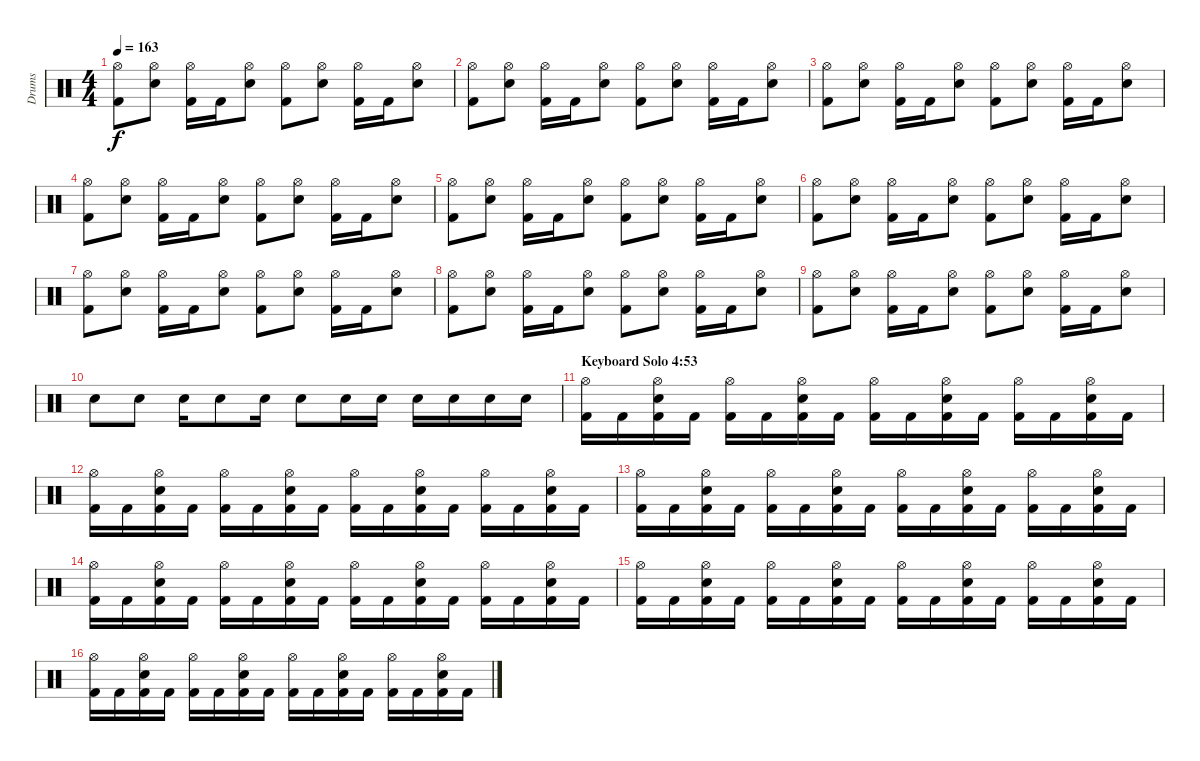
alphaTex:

\track ("Drums" "Drums") {instrument percussion}
\staff {score}
\articulation defaults
\ts (4 4)
\tempo 163
\clef neutral
\ks c
("Hi-Hat (open)" "Kick (hit) 2").8{dy f} ("Hi-Hat (open)" "Snare (hit) 2").8 ("Hi-Hat (open)" "Kick (hit) 2").16 "Kick (hit) 2".16 ("Hi-Hat (open)" "Snare (hit) 2").8 ("Hi-Hat (open)" "Kick (hit) 2").8 ("Hi-Hat (open)" "Snare (hit) 2").8 ("Hi-Hat (open)" "Kick (hit) 2").16 "Kick (hit) 2".16 ("Hi-Hat (open)" "Snare (hit) 2").8 |
("Hi-Hat (open)" "Kick (hit) 2").8 ("Hi-Hat (open)" "Snare (hit) 2").8 ("Hi-Hat (open)" "Kick (hit) 2").16 "Kick (hit) 2".16 ("Hi-Hat (open)" "Snare (hit) 2").8 ("Hi-Hat (open)" "Kick (hit) 2").8 ("Hi-Hat (open)" "Snare (hit) 2").8 ("Hi-Hat (open)" "Kick (hit) 2").16 "Kick (hit) 2".16 ("Hi-Hat (open)" "Snare (hit) 2").8 |
("Hi-Hat (open)" "Kick (hit) 2").8 ("Hi-Hat (open)" "Snare (hit) 2").8 ("Hi-Hat (open)" "Kick (hit) 2").16 "Kick (hit) 2".16 ("Hi-Hat (open)" "Snare (hit) 2").8 ("Hi-Hat (open)" "Kick (hit) 2").8 ("Hi-Hat (open)" "Snare (hit) 2").8 ("Hi-Hat (open)" "Kick (hit) 2").16 "Kick (hit) 2".16 ("Hi-Hat (open)" "Snare (hit) 2").8 |
("Hi-Hat (open)" "Kick (hit) 2").8 ("Hi-Hat (open)" "Snare (hit) 2").8 ("Hi-Hat (open)" "Kick (hit) 2").16 "Kick (hit) 2".16 ("Hi-Hat (open)" "Snare (hit) 2").8 ("Hi-Hat (open)" "Kick (hit) 2").8 ("Hi-Hat (open)" "Snare (hit) 2").8 ("Hi-Hat (open)" "Kick (hit) 2").16 "Kick (hit) 2".16 ("Hi-Hat (open)" "Snare (hit) 2").8 |
("Hi-Hat (open)" "Kick (hit) 2").8 ("Hi-Hat (open)" "Snare (hit) 2").8 ("Hi-Hat (open)" "Kick (hit) 2").16 "Kick (hit) 2".16 ("Hi-Hat (open)" "Snare (hit) 2").8 ("Hi-Hat (open)" "Kick (hit) 2").8 ("Hi-Hat (open)" "Snare (hit) 2").8 ("Hi-Hat (open)" "Kick (hit) 2").16 "Kick (hit) 2".16 ("Hi-Hat (open)" "Snare (hit) 2").8 |
("Hi-Hat (open)" "Kick (hit) 2").8 ("Hi-Hat (open)" "Snare (hit) 2").8 ("Hi-Hat (open)" "Kick (hit) 2").16 "Kick (hit) 2".16 ("Hi-Hat (open)" "Snare (hit) 2").8 ("Hi-Hat (open)" "Kick (hit) 2").8 ("Hi-Hat (open)" "Snare (hit) 2").8 ("Hi-Hat (open)" "Kick (hit) 2").16 "Kick (hit) 2".16 ("Hi-Hat (open)" "Snare (hit) 2").8 |
("Hi-Hat (open)" "Kick (hit) 2").8 ("Hi-Hat (open)" "Snare (hit) 2").8 ("Hi-Hat (open)" "Kick (hit) 2").16 "Kick (hit) 2".16 ("Hi-Hat (open)" "Snare (hit) 2").8 ("Hi-Hat (open)" "Kick (hit) 2").8 ("Hi-Hat (open)" "Snare (hit) 2").8 ("Hi-Hat (open)" "Kick (hit) 2").16 "Kick (hit) 2".16 ("Hi-Hat (open)" "Snare (hit) 2").8 |
("Hi-Hat (open)" "Kick (hit) 2").8 ("Hi-Hat (open)" "Snare (hit) 2").8 ("Hi-Hat (open)" "Kick (hit) 2").16 "Kick (hit) 2".16 ("Hi-Hat (open)" "Snare (hit) 2").8 ("Hi-Hat (open)" "Kick (hit) 2").8 ("Hi-Hat (open)" "Snare (hit) 2").8 ("Hi-Hat (open)" "Kick (hit) 2").16 "Kick (hit) 2".16 ("Hi-Hat (open)" "Snare (hit) 2").8 |
("Hi-Hat (open)" "Kick (hit) 2").8 ("Hi-Hat (open)" "Snare (hit) 2").8 ("Hi-Hat (open)" "Kick (hit) 2").16 "Kick (hit) 2".16 ("Hi-Hat (open)" "Snare (hit) 2").8 ("Hi-Hat (open)" "Kick (hit) 2").8 ("Hi-Hat (open)" "Snare (hit) 2").8 ("Hi-Hat (open)" "Kick (hit) 2").16 "Kick (hit) 2".16 ("Hi-Hat (open)" "Snare (hit) 2").8 |
"Snare (hit) 2".8 "Snare (hit) 2".8 "Snare (hit) 2".16 "Snare (hit) 2".8 "Snare (hit) 2".16 "Snare (hit) 2".8 "Snare (hit) 2".16 "Snare (hit) 2".16 "Snare (hit) 2".16 "Snare (hit) 2".16 "Snare (hit) 2".16 "Snare (hit) 2".16 |
\section ("" "Keyboard Solo 4:53")
("Hi-Hat (open)" "Kick (hit) 2").16 "Kick (hit) 2".16 ("Hi-Hat (open)" "Kick (hit) 2" "Snare (hit) 2").16 "Kick (hit) 2".16 ("Hi-Hat (open)" "Kick (hit) 2").16 "Kick (hit) 2".16 ("Hi-Hat (open)" "Kick (hit) 2" "Snare (hit) 2").16 "Kick (hit) 2".16 ("Hi-Hat (open)" "Kick (hit) 2").16 "Kick (hit) 2".16 ("Hi-Hat (open)" "Kick (hit) 2" "Snare (hit) 2").16 "Kick (hit) 2".16 ("Hi-Hat (open)" "Kick (hit) 2").16 "Kick (hit) 2".16 ("Hi-Hat (open)" "Kick (hit) 2" "Snare (hit) 2").16 "Kick (hit) 2".16 |
("Hi-Hat (open)" "Kick (hit) 2").16 "Kick (hit) 2".16 ("Hi-Hat (open)" "Kick (hit) 2" "Snare (hit) 2").16 "Kick (hit) 2".16 ("Hi-Hat (open)" "Kick (hit) 2").16 "Kick (hit) 2".16 ("Hi-Hat (open)" "Kick (hit) 2" "Snare (hit) 2").16 "Kick (hit) 2".16 ("Hi-Hat (open)" "Kick (hit) 2").16 "Kick (hit) 2".16 ("Hi-Hat (open)" "Kick (hit) 2" "Snare (hit) 2").16 "Kick (hit) 2".16 ("Hi-Hat (open)" "Kick (hit) 2").16 "Kick (hit) 2".16 ("Hi-Hat (open)" "Kick (hit) 2" "Snare (hit) 2").16 "Kick (hit) 2".16 |
("Hi-Hat (open)" "Kick (hit) 2").16 "Kick (hit) 2".16 ("Hi-Hat (open)" "Kick (hit) 2" "Snare (hit) 2").16 "Kick (hit) 2".16 ("Hi-Hat (open)" "Kick (hit) 2").16 "Kick (hit) 2".16 ("Hi-Hat (open)" "Kick (hit) 2" "Snare (hit) 2").16 "Kick (hit) 2".16 ("Hi-Hat (open)" "Kick (hit) 2").16 "Kick (hit) 2".16 ("Hi-Hat (open)" "Kick (hit) 2" "Snare (hit) 2").16 "Kick (hit) 2".16 ("Hi-Hat (open)" "Kick (hit) 2").16 "Kick (hit) 2".16 ("Hi-Hat (open)" "Kick (hit) 2" "Snare (hit) 2").16 "Kick (hit) 2".16 |
("Hi-Hat (open)" "Kick (hit) 2").16 "Kick (hit) 2".16 ("Hi-Hat (open)" "Kick (hit) 2" "Snare (hit) 2").16 "Kick (hit) 2".16 ("Hi-Hat (open)" "Kick (hit) 2").16 "Kick (hit) 2".16 ("Hi-Hat (open)" "Kick (hit) 2" "Snare (hit) 2").16 "Kick (hit) 2".16 ("Hi-Hat (open)" "Kick (hit) 2").16 "Kick (hit) 2".16 ("Hi-Hat (open)" "Kick (hit) 2" "Snare (hit) 2").16 "Kick (hit) 2".16 ("Hi-Hat (open)" "Kick (hit) 2").16 "Kick (hit) 2".16 ("Hi-Hat (open)" "Kick (hit) 2" "Snare (hit) 2").16 "Kick (hit) 2".16 |
("Hi-Hat (open)" "Kick (hit) 2").16 "Kick (hit) 2".16 ("Hi-Hat (open)" "Kick (hit) 2" "Snare (hit) 2").16 "Kick (hit) 2".16 ("Hi-Hat (open)" "Kick (hit) 2").16 "Kick (hit) 2".16 ("Hi-Hat (open)" "Kick (hit) 2" "Snare (hit) 2").16 "Kick (hit) 2".16 ("Hi-Hat (open)" "Kick (hit) 2").16 "Kick (hit) 2".16 ("Hi-Hat (open)" "Kick (hit) 2" "Snare (hit) 2").16 "Kick (hit) 2".16 ("Hi-Hat (open)" "Kick (hit) 2").16 "Kick (hit) 2".16 ("Hi-Hat (open)" "Kick (hit) 2" "Snare (hit) 2").16 "Kick (hit) 2".16 |
("Hi-Hat (open)" "Kick (hit) 2").16 "Kick (hit) 2".16 ("Hi-Hat (open)" "Kick (hit) 2" "Snare (hit) 2").16 "Kick (hit) 2".16 ("Hi-Hat (open)" "Kick (hit) 2").16 "Kick (hit) 2".16 ("Hi-Hat (open)" "Kick (hit) 2" "Snare (hit) 2").16 "Kick (hit) 2".16 ("Hi-Hat (open)" "Kick (hit) 2").16 "Kick (hit) 2".16 ("Hi-Hat (open)" "Kick (hit) 2" "Snare (hit) 2").16 "Kick (hit) 2".16 ("Hi-Hat (open)" "Kick (hit) 2").16 "Kick (hit) 2".16 ("Hi-Hat (open)" "Kick (hit) 2" "Snare (hit) 2").16 "Kick (hit) 2".16
